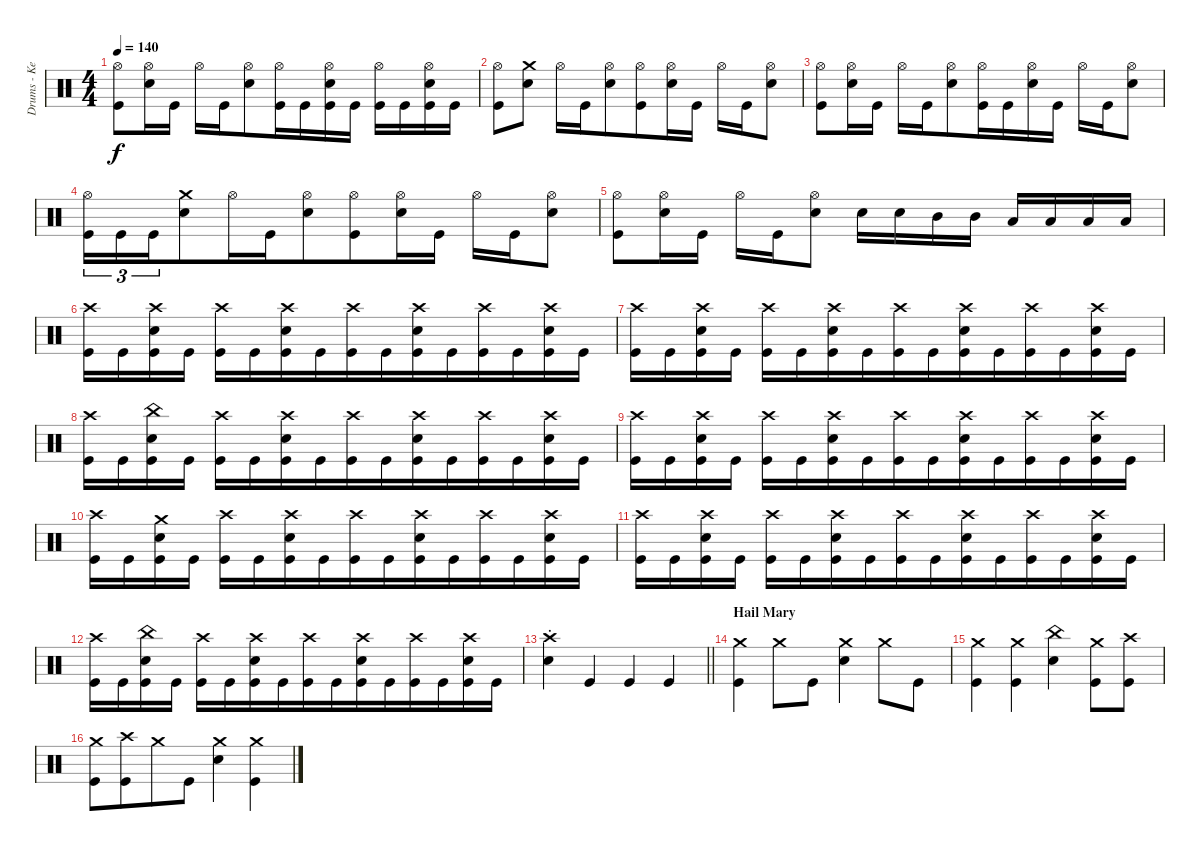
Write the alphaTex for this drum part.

\track ("Drums - Kevin Boutot" "Drums - Ke") {instrument percussion}
\staff {score}
\articulation defaults
\ts (4 4)
\tempo 140
\clef neutral
\ks c
("Hi-Hat (open)" "Kick (hit)").8{dy f} ("Hi-Hat (open)" "Electric Snare (hit)").16{beam merge} "Kick (hit)".16 "Hi-Hat (open)".16 "Kick (hit)".16 ("Hi-Hat (open)" "Electric Snare (hit)").8{beam merge} ("Hi-Hat (open)" "Kick (hit)").16 "Kick (hit)".16{beam merge} ("Hi-Hat (open)" "Electric Snare (hit)" "Kick (hit)").16 "Kick (hit)".16 ("Hi-Hat (open)" "Kick (hit)").16 "Kick (hit)".16{beam merge} ("Hi-Hat (open)" "Electric Snare (hit)" "Kick (hit)").16 "Kick (hit)".16 |
("Hi-Hat (open)" "Kick (hit)").8{beam merge} ("Crash medium (hit)" "Electric Snare (hit)").8 "Hi-Hat (open)".16{beam merge} "Kick (hit)".16 ("Hi-Hat (open)" "Electric Snare (hit)").8{beam merge} ("Hi-Hat (open)" "Kick (hit)").8 ("Hi-Hat (open)" "Electric Snare (hit)").16{beam merge} "Kick (hit)".16 "Hi-Hat (open)".16 "Kick (hit)".16 ("Hi-Hat (open)" "Electric Snare (hit)").8 |
("Hi-Hat (open)" "Kick (hit)").8 ("Hi-Hat (open)" "Electric Snare (hit)").16{beam merge} "Kick (hit)".16 "Hi-Hat (open)".16 "Kick (hit)".16 ("Hi-Hat (open)" "Electric Snare (hit)").8{beam merge} ("Hi-Hat (open)" "Kick (hit)").16 "Kick (hit)".16{beam merge} ("Hi-Hat (open)" "Electric Snare (hit)").16 "Kick (hit)".16 "Hi-Hat (open)".16 "Kick (hit)".16{beam merge} ("Hi-Hat (open)" "Electric Snare (hit)").8 |
("Hi-Hat (open)" "Kick (hit)").16{tu (3 2) beam merge} "Kick (hit)".16{tu (3 2)} "Kick (hit)".16{tu (3 2) beam merge} ("Crash medium (hit)" "Electric Snare (hit)").8{beam merge} "Hi-Hat (open)".16{beam merge} "Kick (hit)".16{beam merge} ("Hi-Hat (open)" "Electric Snare (hit)").8{beam merge} ("Hi-Hat (open)" "Kick (hit)").8 ("Hi-Hat (open)" "Electric Snare (hit)").16{beam merge} "Kick (hit)".16 "Hi-Hat (open)".16 "Kick (hit)".16 ("Hi-Hat (open)" "Electric Snare (hit)").8 |
("Hi-Hat (open)" "Kick (hit)").8 ("Hi-Hat (open)" "Electric Snare (hit)").16{beam merge} "Kick (hit)".16 "Hi-Hat (open)".16 "Kick (hit)".16 ("Hi-Hat (open)" "Electric Snare (hit)").8 "Electric Snare (hit)".16 "Electric Snare (hit)".16 "Mid Tom (hit)".16 "Mid Tom (hit)".16 "Low Tom (hit)".16{beam merge} "Low Tom (hit)".16{beam merge} "Low Floor Tom (hit)".16{beam merge} "Low Floor Tom (hit)".16 |
("Crash high (hit)" "Kick (hit)").16 "Kick (hit)".16 ("Crash high (hit)" "Electric Snare (hit)" "Kick (hit)").16 "Kick (hit)".16 ("Crash high (hit)" "Kick (hit)").16 "Kick (hit)".16{beam merge} ("Crash high (hit)" "Electric Snare (hit)" "Kick (hit)").16 "Kick (hit)".16{beam merge} ("Crash high (hit)" "Kick (hit)").16 "Kick (hit)".16 ("Crash high (hit)" "Electric Snare (hit)" "Kick (hit)").16 "Kick (hit)".16{beam merge} ("Crash high (hit)" "Kick (hit)").16{beam merge} "Kick (hit)".16{beam merge} ("Crash high (hit)" "Electric Snare (hit)" "Kick (hit)").16{beam merge} "Kick (hit)".16 |
("Crash high (hit)" "Kick (hit)").16 "Kick (hit)".16 ("Crash high (hit)" "Electric Snare (hit)" "Kick (hit)").16 "Kick (hit)".16 ("Crash high (hit)" "Kick (hit)").16 "Kick (hit)".16{beam merge} ("Crash high (hit)" "Electric Snare (hit)" "Kick (hit)").16 "Kick (hit)".16{beam merge} ("Crash high (hit)" "Kick (hit)").16 "Kick (hit)".16 ("Crash high (hit)" "Electric Snare (hit)" "Kick (hit)").16 "Kick (hit)".16{beam merge} ("Crash high (hit)" "Kick (hit)").16{beam merge} "Kick (hit)".16{beam merge} ("Crash high (hit)" "Electric Snare (hit)" "Kick (hit)").16{beam merge} "Kick (hit)".16 |
("Crash high (hit)" "Kick (hit)").16 "Kick (hit)".16 ("China (hit)" "Electric Snare (hit)" "Kick (hit)").16 "Kick (hit)".16 ("Crash high (hit)" "Kick (hit)").16 "Kick (hit)".16{beam merge} ("Crash high (hit)" "Electric Snare (hit)" "Kick (hit)").16 "Kick (hit)".16{beam merge} ("Crash high (hit)" "Kick (hit)").16 "Kick (hit)".16 ("Crash high (hit)" "Electric Snare (hit)" "Kick (hit)").16 "Kick (hit)".16{beam merge} ("Crash high (hit)" "Kick (hit)").16{beam merge} "Kick (hit)".16{beam merge} ("Crash high (hit)" "Electric Snare (hit)" "Kick (hit)").16{beam merge} "Kick (hit)".16 |
("Crash high (hit)" "Kick (hit)").16 "Kick (hit)".16 ("Crash high (hit)" "Electric Snare (hit)" "Kick (hit)").16 "Kick (hit)".16 ("Crash high (hit)" "Kick (hit)").16 "Kick (hit)".16{beam merge} ("Crash high (hit)" "Electric Snare (hit)" "Kick (hit)").16 "Kick (hit)".16{beam merge} ("Crash high (hit)" "Kick (hit)").16 "Kick (hit)".16 ("Crash high (hit)" "Electric Snare (hit)" "Kick (hit)").16 "Kick (hit)".16{beam merge} ("Crash high (hit)" "Kick (hit)").16{beam merge} "Kick (hit)".16{beam merge} ("Crash high (hit)" "Electric Snare (hit)" "Kick (hit)").16{beam merge} "Kick (hit)".16 |
("Crash high (hit)" "Kick (hit)").16 "Kick (hit)".16 ("Crash medium (hit)" "Electric Snare (hit)" "Kick (hit)").16 "Kick (hit)".16 ("Crash high (hit)" "Kick (hit)").16 "Kick (hit)".16{beam merge} ("Crash high (hit)" "Electric Snare (hit)" "Kick (hit)").16 "Kick (hit)".16{beam merge} ("Crash high (hit)" "Kick (hit)").16 "Kick (hit)".16 ("Crash high (hit)" "Electric Snare (hit)" "Kick (hit)").16 "Kick (hit)".16{beam merge} ("Crash high (hit)" "Kick (hit)").16{beam merge} "Kick (hit)".16{beam merge} ("Crash high (hit)" "Electric Snare (hit)" "Kick (hit)").16{beam merge} "Kick (hit)".16 |
("Crash high (hit)" "Kick (hit)").16 "Kick (hit)".16 ("Crash high (hit)" "Electric Snare (hit)" "Kick (hit)").16 "Kick (hit)".16 ("Crash high (hit)" "Kick (hit)").16 "Kick (hit)".16{beam merge} ("Crash high (hit)" "Electric Snare (hit)" "Kick (hit)").16 "Kick (hit)".16{beam merge} ("Crash high (hit)" "Kick (hit)").16 "Kick (hit)".16 ("Crash high (hit)" "Electric Snare (hit)" "Kick (hit)").16 "Kick (hit)".16{beam merge} ("Crash high (hit)" "Kick (hit)").16{beam merge} "Kick (hit)".16{beam merge} ("Crash high (hit)" "Electric Snare (hit)" "Kick (hit)").16{beam merge} "Kick (hit)".16 |
("Crash high (hit)" "Kick (hit)").16 "Kick (hit)".16 ("China (hit)" "Electric Snare (hit)" "Kick (hit)").16 "Kick (hit)".16 ("Crash high (hit)" "Kick (hit)").16 "Kick (hit)".16{beam merge} ("Crash high (hit)" "Electric Snare (hit)" "Kick (hit)").16 "Kick (hit)".16{beam merge} ("Crash high (hit)" "Kick (hit)").16 "Kick (hit)".16 ("Crash high (hit)" "Electric Snare (hit)" "Kick (hit)").16 "Kick (hit)".16{beam merge} ("Crash high (hit)" "Kick (hit)").16{beam merge} "Kick (hit)".16{beam merge} ("Crash high (hit)" "Electric Snare (hit)" "Kick (hit)").16{beam merge} "Kick (hit)".16 |
\barLineRight lightlight
("Crash high (hit)"{st} "Electric Snare (hit)").4 "Kick (hit)".4 "Kick (hit)".4 "Kick (hit)".4 |
\section ("" "Hail Mary")
("Crash medium (hit)" "Kick (hit)").4{beam merge} "Crash medium (hit)".8 "Kick (hit)".8{beam merge} ("Crash medium (hit)" "Electric Snare (hit)").4 "Crash medium (hit)".8 "Kick (hit)".8 |
("Crash medium (hit)" "Kick (hit)").4 ("Crash medium (hit)" "Kick (hit)").4 ("China (hit)" "Electric Snare (hit)").4 ("Crash medium (hit)" "Kick (hit)").8 ("Crash high (hit)" "Kick (hit)").8 |
("Crash medium (hit)" "Kick (hit)").8 ("Crash high (hit)" "Kick (hit)").8{beam merge} "Crash medium (hit)".8 "Kick (hit)".8{beam merge} ("Crash medium (hit)" "Electric Snare (hit)").4 ("Crash medium (hit)" "Kick (hit)").4
